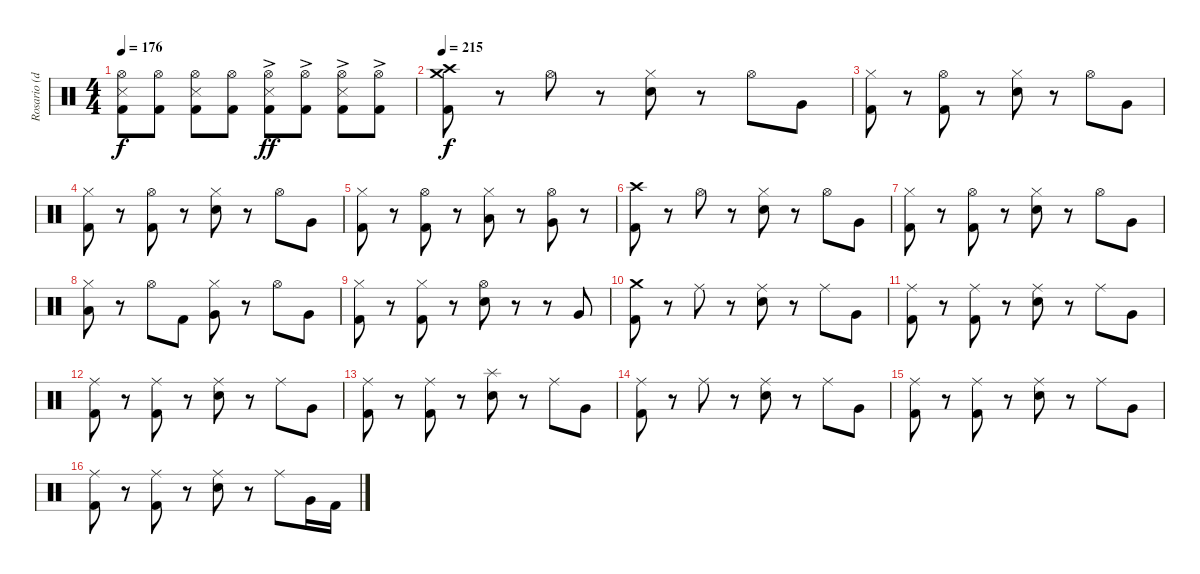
\track ("Rosario (drum)" "Rosario (d") {instrument percussion}
\staff {score}
\articulation defaults
\ts (4 4)
\tempo 176
\clef neutral
\ks c
("Hi-Hat (open)" "Snare (side stick) 3" "Kick (hit) 2").8{dy f} ("Hi-Hat (open)" "Kick (hit) 2").8 ("Hi-Hat (open)" "Snare (side stick) 3" "Kick (hit) 2").8 ("Hi-Hat (open)" "Kick (hit) 2").8 ("Hi-Hat (open)"{ac} "Snare (side stick) 3" "Kick (hit) 2").8{dy ff} ("Hi-Hat (open)"{ac} "Kick (hit) 2").8 ("Hi-Hat (open)"{ac} "Snare (side stick) 3" "Kick (hit) 2").8 ("Hi-Hat (open)"{ac} "Kick (hit) 2").8 |
\tempo 215
("Crash high (hit)" "Crash medium (hit)" "Kick (hit) 2").8{dy f} r.8 "Hi-Hat (open)".8 r.8 ("Hi-Hat (closed)" "Electric Snare (hit)").8 r.8 "Hi-Hat (open)".8 "Very Low Tom (hit)".8 |
("Hi-Hat (closed)" "Kick (hit) 2").8 r.8 ("Hi-Hat (open)" "Kick (hit) 2").8 r.8 ("Hi-Hat (closed)" "Electric Snare (hit)").8 r.8 "Hi-Hat (open)".8 "Very Low Tom (hit)".8 |
("Hi-Hat (closed)" "Kick (hit) 2").8 r.8 ("Hi-Hat (open)" "Kick (hit) 2").8 r.8 ("Hi-Hat (closed)" "Electric Snare (hit)").8 r.8 "Hi-Hat (open)".8 "Very Low Tom (hit)".8 |
("Hi-Hat (closed)" "Kick (hit) 2").8 r.8 ("Hi-Hat (open)" "Kick (hit) 2").8 r.8 ("Hi-Hat (closed)" "Low Tom (hit)").8 r.8 ("Hi-Hat (open)" "Very Low Tom (hit)").8 r.8 |
("Crash high (hit)" "Kick (hit) 2").8 r.8 "Hi-Hat (open)".8 r.8 ("Hi-Hat (closed)" "Electric Snare (hit)").8 r.8 "Hi-Hat (open)".8 "Very Low Tom (hit)".8 |
("Hi-Hat (closed)" "Kick (hit) 2").8 r.8 ("Hi-Hat (open)" "Kick (hit) 2").8 r.8 ("Hi-Hat (closed)" "Electric Snare (hit)").8 r.8 "Hi-Hat (open)".8 "Very Low Tom (hit)".8 |
("Hi-Hat (closed)" "Low Tom (hit)").8 r.8 "Hi-Hat (open)".8 "Kick (hit) 2".8 ("Hi-Hat (closed)" "Very Low Tom (hit)").8 r.8 "Hi-Hat (open)".8 "Very Low Tom (hit)".8 |
("Hi-Hat (closed)" "Kick (hit) 2").8 r.8 ("Hi-Hat (closed)" "Kick (hit) 2").8 r.8 ("Hi-Hat (open)" "Electric Snare (hit)").8 r.8 r.8 "Very Low Tom (hit)".8 |
("Crash medium (hit)" "Kick (hit) 2").8 r.8 "Ride (middle)".8 r.8 ("Ride (middle)" "Electric Snare (hit)").8 r.8 "Ride (middle)".8 "Very Low Tom (hit)".8 |
("Ride (middle)" "Kick (hit) 2").8 r.8 ("Ride (middle)" "Kick (hit) 2").8 r.8 ("Ride (middle)" "Electric Snare (hit)").8 r.8 "Ride (middle)".8 "Very Low Tom (hit)".8 |
("Ride (middle)" "Kick (hit) 2").8 r.8 ("Ride (middle)" "Kick (hit) 2").8 r.8 ("Ride (middle)" "Electric Snare (hit)").8 r.8 "Ride (middle)".8 "Very Low Tom (hit)".8 |
("Ride (middle)" "Kick (hit) 2").8 r.8 ("Ride (middle)" "Kick (hit) 2").8 r.8 ("Splash (hit)" "Electric Snare (hit)").8 r.8 "Ride (middle)".8 "Very Low Tom (hit)".8 |
("Ride (middle)" "Kick (hit) 2").8 r.8 "Ride (middle)".8 r.8 ("Ride (middle)" "Electric Snare (hit)").8 r.8 "Ride (middle)".8 "Very Low Tom (hit)".8 |
("Ride (middle)" "Kick (hit) 2").8 r.8 ("Ride (middle)" "Kick (hit) 2").8 r.8 ("Ride (middle)" "Electric Snare (hit)").8 r.8 "Ride (middle)".8 "Very Low Tom (hit)".8 |
("Ride (middle)" "Kick (hit) 2").8 r.8 ("Ride (middle)" "Kick (hit) 2").8 r.8 ("Ride (middle)" "Electric Snare (hit)").8 r.8 "Ride (middle)".8 "Very Low Tom (hit)".16 "Kick (hit) 2".16
